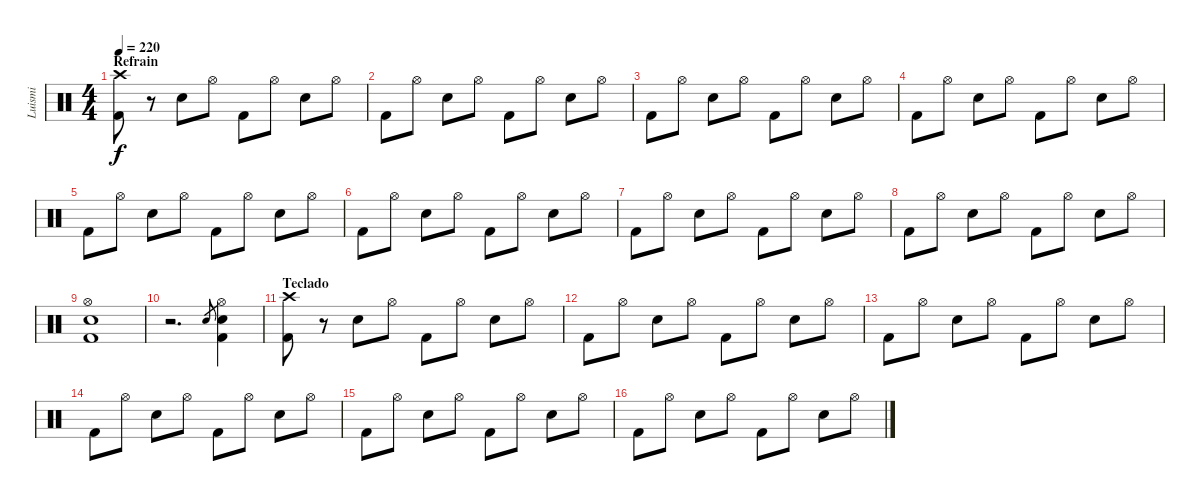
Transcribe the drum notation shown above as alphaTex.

\track ("Luismi" "Luismi") {instrument percussion}
\staff {score}
\articulation defaults
\ts (4 4)
\section ("" "Refrain")
\tempo 220
\clef neutral
\ks c
("Crash high (hit)" "Kick (hit) 2").8{dy f} r.8 "Snare (hit) 2".8 "Hi-Hat (open)".8 "Kick (hit) 2".8 "Hi-Hat (open)".8 "Snare (hit) 2".8 "Hi-Hat (open)".8 |
"Kick (hit) 2".8 "Hi-Hat (open)".8 "Snare (hit) 2".8 "Hi-Hat (open)".8 "Kick (hit) 2".8 "Hi-Hat (open)".8 "Snare (hit) 2".8 "Hi-Hat (open)".8 |
"Kick (hit) 2".8 "Hi-Hat (open)".8 "Snare (hit) 2".8 "Hi-Hat (open)".8 "Kick (hit) 2".8 "Hi-Hat (open)".8 "Snare (hit) 2".8 "Hi-Hat (open)".8 |
"Kick (hit) 2".8 "Hi-Hat (open)".8 "Snare (hit) 2".8 "Hi-Hat (open)".8 "Kick (hit) 2".8 "Hi-Hat (open)".8 "Snare (hit) 2".8 "Hi-Hat (open)".8 |
"Kick (hit) 2".8 "Hi-Hat (open)".8 "Snare (hit) 2".8 "Hi-Hat (open)".8 "Kick (hit) 2".8 "Hi-Hat (open)".8 "Snare (hit) 2".8 "Hi-Hat (open)".8 |
"Kick (hit) 2".8 "Hi-Hat (open)".8 "Snare (hit) 2".8 "Hi-Hat (open)".8 "Kick (hit) 2".8 "Hi-Hat (open)".8 "Snare (hit) 2".8 "Hi-Hat (open)".8 |
"Kick (hit) 2".8 "Hi-Hat (open)".8 "Snare (hit) 2".8 "Hi-Hat (open)".8 "Kick (hit) 2".8 "Hi-Hat (open)".8 "Snare (hit) 2".8 "Hi-Hat (open)".8 |
"Kick (hit) 2".8 "Hi-Hat (open)".8 "Snare (hit) 2".8 "Hi-Hat (open)".8 "Kick (hit) 2".8 "Hi-Hat (open)".8 "Snare (hit) 2".8 "Hi-Hat (open)".8 |
("Hi-Hat (open)" "Snare (hit) 2" "Kick (hit) 2").1 |
r.2{d} "Snare (hit) 2".8{gr} ("Hi-Hat (open)" "Snare (hit) 2" "Kick (hit) 2").4 |
\section ("" "Teclado")
("Crash high (hit)" "Kick (hit) 2").8 r.8 "Snare (hit) 2".8 "Hi-Hat (open)".8 "Kick (hit) 2".8 "Hi-Hat (open)".8 "Snare (hit) 2".8 "Hi-Hat (open)".8 |
"Kick (hit) 2".8 "Hi-Hat (open)".8 "Snare (hit) 2".8 "Hi-Hat (open)".8 "Kick (hit) 2".8 "Hi-Hat (open)".8 "Snare (hit) 2".8 "Hi-Hat (open)".8 |
"Kick (hit) 2".8 "Hi-Hat (open)".8 "Snare (hit) 2".8 "Hi-Hat (open)".8 "Kick (hit) 2".8 "Hi-Hat (open)".8 "Snare (hit) 2".8 "Hi-Hat (open)".8 |
"Kick (hit) 2".8 "Hi-Hat (open)".8 "Snare (hit) 2".8 "Hi-Hat (open)".8 "Kick (hit) 2".8 "Hi-Hat (open)".8 "Snare (hit) 2".8 "Hi-Hat (open)".8 |
"Kick (hit) 2".8 "Hi-Hat (open)".8 "Snare (hit) 2".8 "Hi-Hat (open)".8 "Kick (hit) 2".8 "Hi-Hat (open)".8 "Snare (hit) 2".8 "Hi-Hat (open)".8 |
"Kick (hit) 2".8 "Hi-Hat (open)".8 "Snare (hit) 2".8 "Hi-Hat (open)".8 "Kick (hit) 2".8 "Hi-Hat (open)".8 "Snare (hit) 2".8 "Hi-Hat (open)".8
